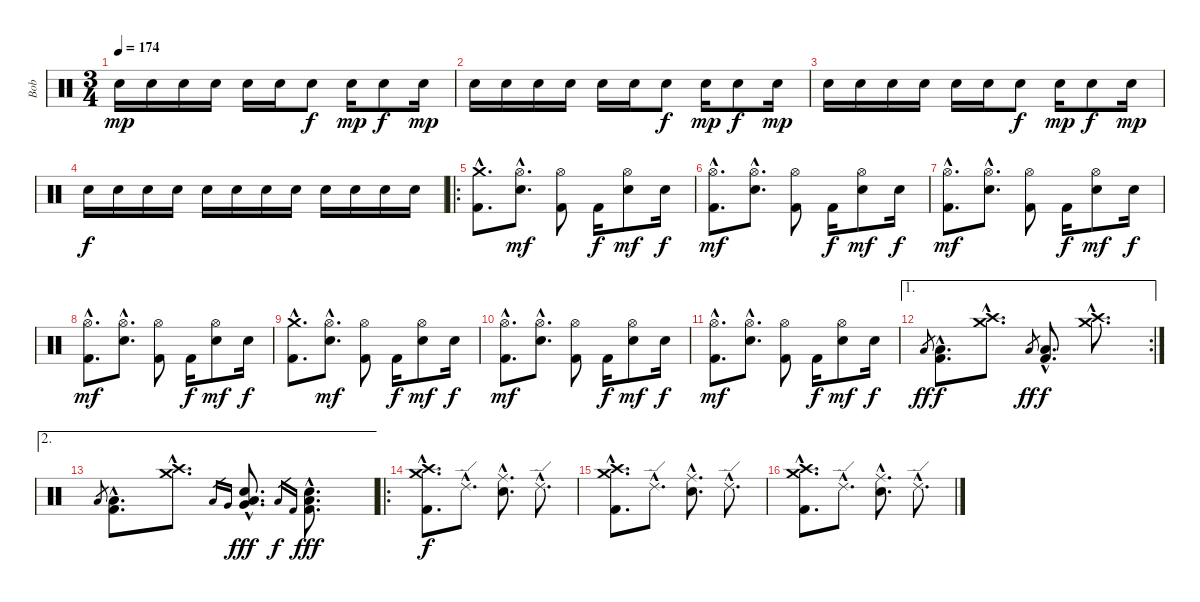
\track ("Bob" "Bob") {instrument percussion}
\staff {score}
\articulation defaults
\ts (3 4)
\tempo 174
\clef neutral
\ks c "Snare (hit) 2".16{dy mp} "Snare (hit) 2".16 "Snare (hit) 2".16 "Snare (hit) 2".16 "Snare (hit) 2".16 "Snare (hit) 2".16 "Electric Snare (hit)".8{dy f} "Snare (hit) 2".16{dy mp} "Electric Snare (hit)".8{dy f} "Snare (hit) 2".16{dy mp}
|
"Snare (hit) 2".16 "Snare (hit) 2".16 "Snare (hit) 2".16 "Snare (hit) 2".16 "Snare (hit) 2".16 "Snare (hit) 2".16 "Electric Snare (hit)".8{dy f} "Snare (hit) 2".16{dy mp} "Electric Snare (hit)".8{dy f} "Snare (hit) 2".16{dy mp} |
"Snare (hit) 2".16 "Snare (hit) 2".16 "Snare (hit) 2".16 "Snare (hit) 2".16 "Snare (hit) 2".16 "Snare (hit) 2".16 "Electric Snare (hit)".8{dy f} "Snare (hit) 2".16{dy mp} "Electric Snare (hit)".8{dy f} "Snare (hit) 2".16{dy mp} |
"Electric Snare (hit)".16{dy f} "Electric Snare (hit)".16 "Electric Snare (hit)".16 "Electric Snare (hit)".16 "Electric Snare (hit)".16 "Electric Snare (hit)".16 "Electric Snare (hit)".16 "Electric Snare (hit)".16 "Electric Snare (hit)".16 "Electric Snare (hit)".16 "Electric Snare (hit)".16 "Electric Snare (hit)".16 |
\ro
("Crash medium (hit)"{hac} "Kick (hit) 2"{hac}).8{d} ("Hi-Hat (open)"{hac} "Electric Snare (hit)"{hac}).8{d dy mf} ("Hi-Hat (open)" "Kick (hit) 2").8 "Kick (hit) 2".16{dy f} ("Hi-Hat (open)" "Electric Snare (hit)").8{dy mf} "Electric Snare (hit)".16{dy f} |
("Hi-Hat (open)"{hac} "Kick (hit) 2"{hac}).8{d dy mf} ("Hi-Hat (open)"{hac} "Electric Snare (hit)"{hac}).8{d} ("Hi-Hat (open)" "Kick (hit) 2").8 "Kick (hit) 2".16{dy f} ("Hi-Hat (open)" "Electric Snare (hit)").8{dy mf} "Electric Snare (hit)".16{dy f} |
("Hi-Hat (open)"{hac} "Kick (hit) 2"{hac}).8{d dy mf} ("Hi-Hat (open)"{hac} "Electric Snare (hit)"{hac}).8{d} ("Hi-Hat (open)" "Kick (hit) 2").8 "Kick (hit) 2".16{dy f} ("Hi-Hat (open)" "Electric Snare (hit)").8{dy mf} "Electric Snare (hit)".16{dy f} |
("Hi-Hat (open)"{hac} "Kick (hit) 2"{hac}).8{d dy mf} ("Hi-Hat (open)"{hac} "Electric Snare (hit)"{hac}).8{d} ("Hi-Hat (open)" "Kick (hit) 2").8 "Kick (hit) 2".16{dy f} ("Hi-Hat (open)" "Electric Snare (hit)").8{dy mf} "Electric Snare (hit)".16{dy f} |
("Crash medium (hit)"{hac} "Kick (hit) 2"{hac}).8{d} ("Hi-Hat (open)"{hac} "Electric Snare (hit)"{hac}).8{d dy mf} ("Hi-Hat (open)" "Kick (hit) 2").8 "Kick (hit) 2".16{dy f} ("Hi-Hat (open)" "Electric Snare (hit)").8{dy mf} "Electric Snare (hit)".16{dy f} |
("Hi-Hat (open)"{hac} "Kick (hit) 2"{hac}).8{d dy mf} ("Hi-Hat (open)"{hac} "Electric Snare (hit)"{hac}).8{d} ("Hi-Hat (open)" "Kick (hit) 2").8 "Kick (hit) 2".16{dy f} ("Hi-Hat (open)" "Electric Snare (hit)").8{dy mf} "Electric Snare (hit)".16{dy f} |
("Hi-Hat (open)"{hac} "Kick (hit) 2"{hac}).8{d dy mf} ("Hi-Hat (open)"{hac} "Electric Snare (hit)"{hac}).8{d} ("Hi-Hat (open)" "Kick (hit) 2").8 "Kick (hit) 2".16{dy f} ("Hi-Hat (open)" "Electric Snare (hit)").8{dy mf} "Electric Snare (hit)".16{dy f} |
\ae 1
\rc 2 "Low Floor Tom (hit)".8{gr dy ff}
("Low Floor Tom (hit)"{hac} "Kick (hit) 2"{hac}).8{d dy f} ("Crash medium (hit)"{hac} "Crash high (hit)"{hac}).8{d} "Low Floor Tom (hit)".8{gr dy ff} ("Low Floor Tom (hit)"{hac} "Kick (hit) 2"{hac}).8{d dy f} ("Crash medium (hit)"{hac} "Crash high (hit)"{hac}).8{d} |
\ae 2 "Low Floor Tom (hit)".8{gr}
("Low Floor Tom (hit)"{hac} "Kick (hit) 2"{hac}).8{d} ("Crash medium (hit)"{hac} "Crash high (hit)"{hac}).8{d} "Low Tom (hit)".16{gr} "Very Low Tom (hit)".16{gr} ("Low Tom (hit)"{hac} "Very Low Tom (hit)"{hac} "Electric Snare (hit)"{hac}).8{d dy fff} "Low Floor Tom (hit)".16{gr dy f} "Kick (hit) 2".16{gr} ("Electric Snare (hit)"{hac} "Low Floor Tom (hit)"{hac} "Kick (hit) 2"{hac}).8{d dy fff} |
\ro
("Crash high (hit)"{hac} "Crash medium (hit)"{hac} "Kick (hit) 2"{hac}).8{d dy f} "Ride (edge) 2"{hac}.8{d} ("Ride (middle)"{hac} "Electric Snare (hit)"{hac}).8{d} "Ride (edge) 2"{hac}.8{d} |
("Crash high (hit)"{hac} "Crash medium (hit)"{hac} "Kick (hit) 2"{hac}).8{d} "Ride (edge) 2"{hac}.8{d} ("Ride (middle)"{hac} "Electric Snare (hit)"{hac}).8{d} "Ride (edge) 2"{hac}.8{d} |
("Crash high (hit)"{hac} "Crash medium (hit)"{hac} "Kick (hit) 2"{hac}).8{d} "Ride (edge) 2"{hac}.8{d} ("Ride (middle)"{hac} "Electric Snare (hit)"{hac}).8{d} "Ride (edge) 2"{hac}.8{d}
